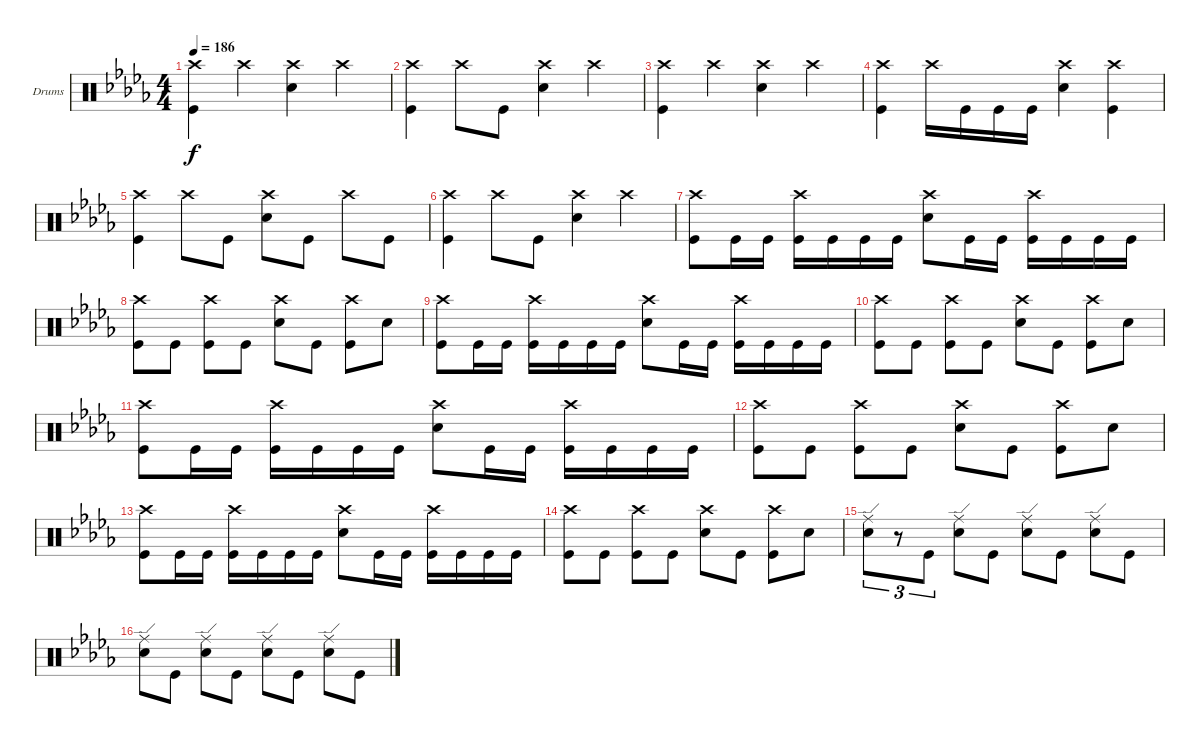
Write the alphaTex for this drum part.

\bracketExtendMode groupsimilarinstruments
\firstSystemTrackNameOrientation horizontal
\otherSystemsTrackNameOrientation horizontal
\track ("Drumkit" "Drums") {instrument percussion}
\staff {score}
\articulation defaults
\ts (4 4)
\tempo 186
\clef neutral
\ks db
("Crash high (hit)" "Kick (hit)").4{dy f} "Crash high (hit)".4 ("Crash high (hit)" "Snare (hit) 2").4 "Crash high (hit)".4 |
("Crash high (hit)" "Kick (hit)").4 "Crash high (hit)".8 "Kick (hit)".8 ("Crash high (hit)" "Snare (hit) 2").4 "Crash high (hit)".4 |
("Crash high (hit)" "Kick (hit)").4 "Crash high (hit)".4 ("Crash high (hit)" "Snare (hit) 2").4 "Crash high (hit)".4 |
("Crash high (hit)" "Kick (hit)").4 "Crash high (hit)".16 "Kick (hit)".16 "Kick (hit)".16 "Kick (hit)".16 ("Crash high (hit)" "Snare (hit) 2").4 ("Crash high (hit)" "Kick (hit)").4 |
("Crash high (hit)" "Kick (hit)").4 "Crash high (hit)".8 "Kick (hit)".8 ("Crash high (hit)" "Snare (hit) 2").8 "Kick (hit)".8 "Crash high (hit)".8 "Kick (hit)".8 |
("Crash high (hit)" "Kick (hit)").4 "Crash high (hit)".8 "Kick (hit)".8 ("Crash high (hit)" "Snare (hit) 2").4 "Crash high (hit)".4 |
("Crash high (hit)" "Kick (hit)").8 "Kick (hit)".16 "Kick (hit)".16 ("Crash high (hit)" "Kick (hit)").16 "Kick (hit)".16 "Kick (hit)".16 "Kick (hit)".16 ("Crash high (hit)" "Snare (hit) 2").8 "Kick (hit)".16 "Kick (hit)".16 ("Crash high (hit)" "Kick (hit)").16 "Kick (hit)".16 "Kick (hit)".16 "Kick (hit)".16 |
("Crash high (hit)" "Kick (hit)").8 "Kick (hit)".8 ("Crash high (hit)" "Kick (hit)").8 "Kick (hit)".8 ("Crash high (hit)" "Snare (hit) 2").8 "Kick (hit)".8 ("Crash high (hit)" "Kick (hit)").8 "Snare (hit) 2".8 |
("Crash high (hit)" "Kick (hit)").8 "Kick (hit)".16 "Kick (hit)".16 ("Crash high (hit)" "Kick (hit)").16 "Kick (hit)".16 "Kick (hit)".16 "Kick (hit)".16 ("Crash high (hit)" "Snare (hit) 2").8 "Kick (hit)".16 "Kick (hit)".16 ("Crash high (hit)" "Kick (hit)").16 "Kick (hit)".16 "Kick (hit)".16 "Kick (hit)".16 |
("Crash high (hit)" "Kick (hit)").8 "Kick (hit)".8 ("Crash high (hit)" "Kick (hit)").8 "Kick (hit)".8 ("Crash high (hit)" "Snare (hit) 2").8 "Kick (hit)".8 ("Crash high (hit)" "Kick (hit)").8 "Snare (hit) 2".8 |
("Crash high (hit)" "Kick (hit)").8 "Kick (hit)".16 "Kick (hit)".16 ("Crash high (hit)" "Kick (hit)").16 "Kick (hit)".16 "Kick (hit)".16 "Kick (hit)".16 ("Crash high (hit)" "Snare (hit) 2").8 "Kick (hit)".16 "Kick (hit)".16 ("Crash high (hit)" "Kick (hit)").16 "Kick (hit)".16 "Kick (hit)".16 "Kick (hit)".16 |
("Crash high (hit)" "Kick (hit)").8 "Kick (hit)".8 ("Crash high (hit)" "Kick (hit)").8 "Kick (hit)".8 ("Crash high (hit)" "Snare (hit) 2").8 "Kick (hit)".8 ("Crash high (hit)" "Kick (hit)").8 "Snare (hit) 2".8 |
("Crash high (hit)" "Kick (hit)").8 "Kick (hit)".16 "Kick (hit)".16 ("Crash high (hit)" "Kick (hit)").16 "Kick (hit)".16 "Kick (hit)".16 "Kick (hit)".16 ("Crash high (hit)" "Snare (hit) 2").8 "Kick (hit)".16 "Kick (hit)".16 ("Crash high (hit)" "Kick (hit)").16 "Kick (hit)".16 "Kick (hit)".16 "Kick (hit)".16 |
("Crash high (hit)" "Kick (hit)").8 "Kick (hit)".8 ("Crash high (hit)" "Kick (hit)").8 "Kick (hit)".8 ("Crash high (hit)" "Snare (hit) 2").8 "Kick (hit)".8 ("Crash high (hit)" "Kick (hit)").8 "Snare (hit) 2".8 |
("Ride (edge)" "Snare (hit) 2").8{tu (3 2)} r.8{tu (3 2)} "Kick (hit)".8{tu (3 2)} ("Ride (edge)" "Snare (hit) 2").8 "Kick (hit)".8 ("Ride (edge)" "Snare (hit) 2").8 "Kick (hit)".8 ("Ride (edge)" "Snare (hit) 2").8 "Kick (hit)".8 |
("Ride (edge)" "Snare (hit) 2").8 "Kick (hit)".8 ("Ride (edge)" "Snare (hit) 2").8 "Kick (hit)".8 ("Ride (edge)" "Snare (hit) 2").8 "Kick (hit)".8 ("Ride (edge)" "Snare (hit) 2").8 "Kick (hit)".8
